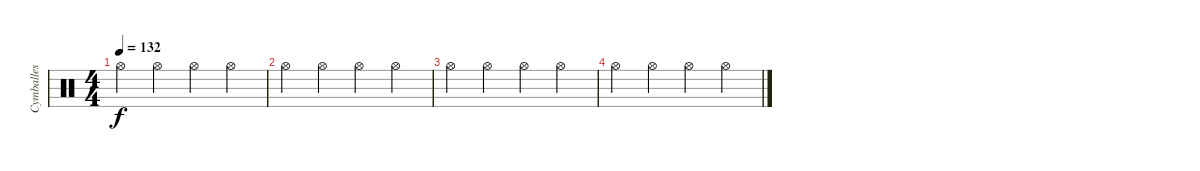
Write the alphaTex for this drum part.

\track ("Cymballes" "Cymballes") {instrument percussion}
\staff {score}
\articulation defaults
\ts (4 4)
\tempo 132
\clef neutral
\ks c "Hi-Hat (open)".4{dy f} "Hi-Hat (open)".4 "Hi-Hat (open)".4 "Hi-Hat (open)".4
|
"Hi-Hat (open)".4 "Hi-Hat (open)".4 "Hi-Hat (open)".4 "Hi-Hat (open)".4 |
"Hi-Hat (open)".4 "Hi-Hat (open)".4 "Hi-Hat (open)".4 "Hi-Hat (open)".4 |
"Hi-Hat (open)".4 "Hi-Hat (open)".4 "Hi-Hat (open)".4 "Hi-Hat (open)".4
